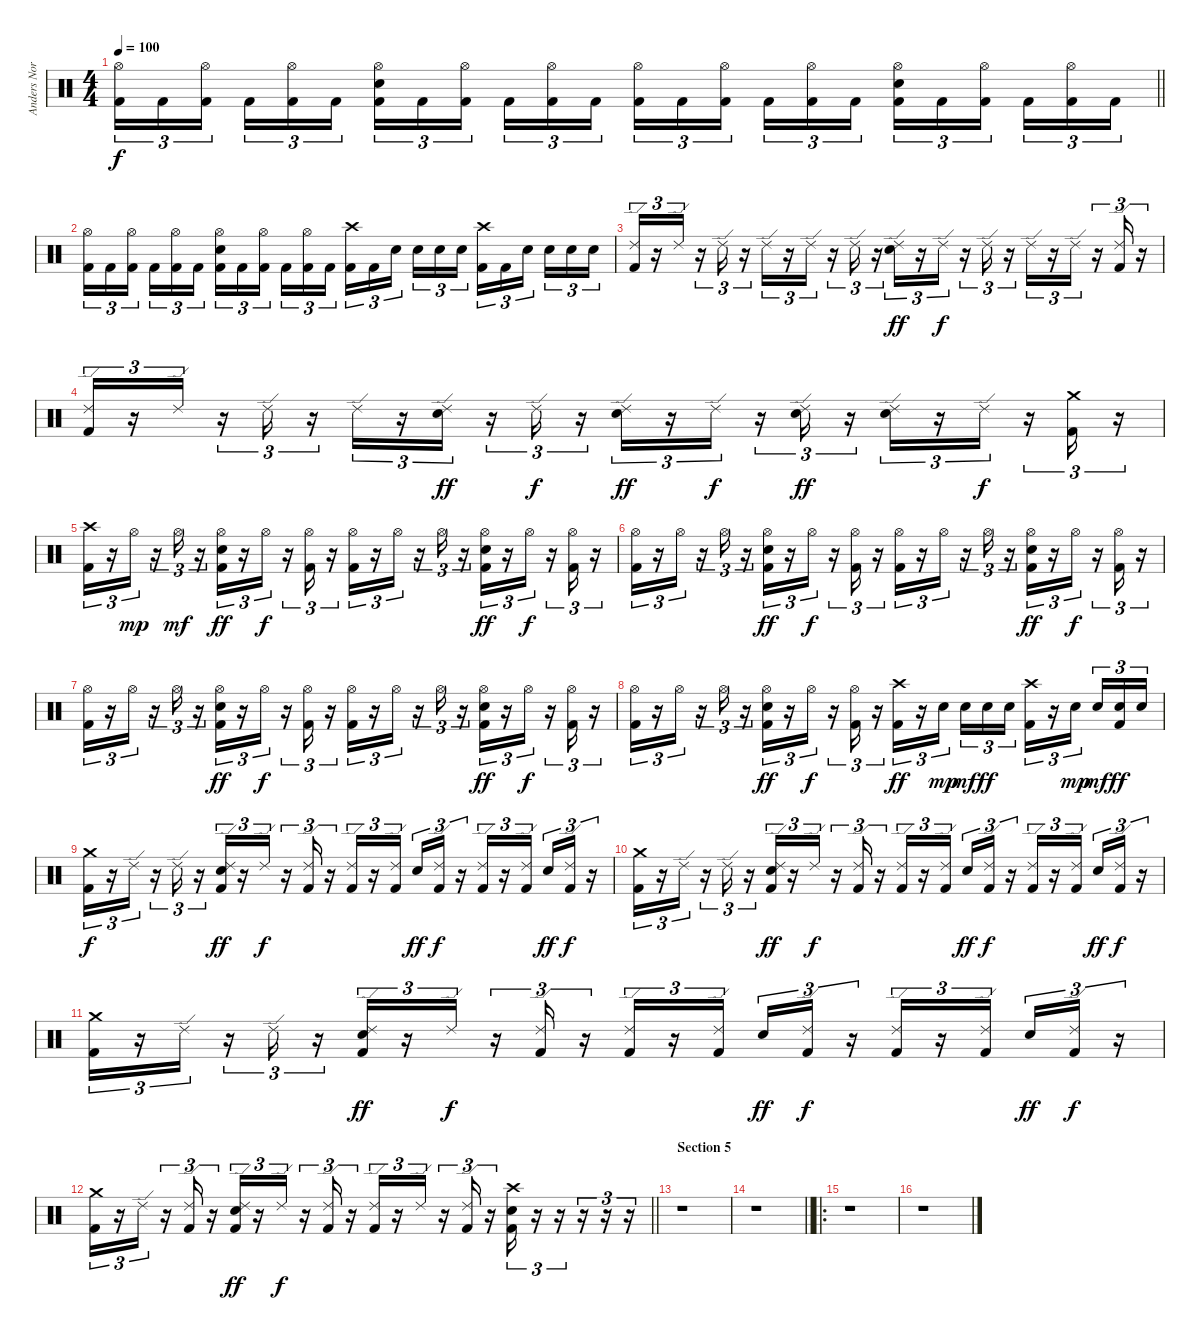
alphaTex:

\track ("Anders Nordin" "Anders Nor") {instrument percussion}
\staff {score}
\articulation defaults
\ts (4 4)
\tempo 100
\clef neutral
\barLineRight lightlight
\ks c
("Hi-Hat (open)" "Kick (hit) 2").16{tu (3 2) dy f} "Kick (hit) 2".16{tu (3 2)} ("Hi-Hat (open)" "Kick (hit) 2").16{tu (3 2) beam splitsecondary} "Kick (hit) 2".16{tu (3 2)} ("Hi-Hat (open)" "Kick (hit) 2").16{tu (3 2)} "Kick (hit) 2".16{tu (3 2)} ("Hi-Hat (open)" "Snare (hit) 2" "Kick (hit) 2").16{tu (3 2)} "Kick (hit) 2".16{tu (3 2)} ("Hi-Hat (open)" "Kick (hit) 2").16{tu (3 2) beam splitsecondary} "Kick (hit) 2".16{tu (3 2)} ("Hi-Hat (open)" "Kick (hit) 2").16{tu (3 2)} "Kick (hit) 2".16{tu (3 2)} ("Hi-Hat (open)" "Kick (hit) 2").16{tu (3 2)} "Kick (hit) 2".16{tu (3 2)} ("Hi-Hat (open)" "Kick (hit) 2").16{tu (3 2) beam splitsecondary} "Kick (hit) 2".16{tu (3 2)} ("Hi-Hat (open)" "Kick (hit) 2").16{tu (3 2)} "Kick (hit) 2".16{tu (3 2)} ("Hi-Hat (open)" "Snare (hit) 2" "Kick (hit) 2").16{tu (3 2)} "Kick (hit) 2".16{tu (3 2)} ("Hi-Hat (open)" "Kick (hit) 2").16{tu (3 2) beam splitsecondary} "Kick (hit) 2".16{tu (3 2)} ("Hi-Hat (open)" "Kick (hit) 2").16{tu (3 2)} "Kick (hit) 2".16{tu (3 2)} |
\section ("" "")
("Hi-Hat (open)" "Kick (hit) 2").16{tu (3 2)} "Kick (hit) 2".16{tu (3 2)} ("Hi-Hat (open)" "Kick (hit) 2").16{tu (3 2) beam splitsecondary} "Kick (hit) 2".16{tu (3 2)} ("Hi-Hat (open)" "Kick (hit) 2").16{tu (3 2)} "Kick (hit) 2".16{tu (3 2)} ("Hi-Hat (open)" "Snare (hit) 2" "Kick (hit) 2").16{tu (3 2)} "Kick (hit) 2".16{tu (3 2)} ("Hi-Hat (open)" "Kick (hit) 2").16{tu (3 2) beam splitsecondary} "Kick (hit) 2".16{tu (3 2)} ("Hi-Hat (open)" "Kick (hit) 2").16{tu (3 2)} "Kick (hit) 2".16{tu (3 2)} ("Crash high (hit)" "Kick (hit) 2").16{tu (3 2)} "Kick (hit) 2".16{tu (3 2)} "Snare (hit) 2".16{tu (3 2) beam splitsecondary} "Snare (hit) 2".16{tu (3 2)} "Snare (hit) 2".16{tu (3 2)} "Snare (hit) 2".16{tu (3 2)} ("Crash high (hit)" "Kick (hit) 2").16{tu (3 2)} "Kick (hit) 2".16{tu (3 2)} "Snare (hit) 2".16{tu (3 2) beam splitsecondary} "Snare (hit) 2".16{tu (3 2)} "Snare (hit) 2".16{tu (3 2)} "Snare (hit) 2".16{tu (3 2)} |
("Ride (edge) 2" "Kick (hit) 2").16{tu (3 2)} r.16{tu (3 2)} "Ride (edge) 2".16{tu (3 2)} r.16{tu (3 2)} "Ride (edge) 2".16{tu (3 2)} r.16{tu (3 2)} "Ride (edge) 2".16{tu (3 2)} r.16{tu (3 2)} "Ride (edge) 2".16{tu (3 2)} r.16{tu (3 2)} "Ride (edge) 2".16{tu (3 2)} r.16{tu (3 2)} ("Ride (edge) 2" "Snare (hit) 2").16{tu (3 2) dy ff} r.16{tu (3 2)} "Ride (edge) 2".16{tu (3 2) dy f} r.16{tu (3 2)} "Ride (edge) 2".16{tu (3 2)} r.16{tu (3 2)} "Ride (edge) 2".16{tu (3 2)} r.16{tu (3 2)} "Ride (edge) 2".16{tu (3 2)} r.16{tu (3 2)} ("Ride (edge) 2" "Kick (hit) 2").16{tu (3 2)} r.16{tu (3 2)} |
("Ride (edge) 2" "Kick (hit) 2").16{tu (3 2)} r.16{tu (3 2)} "Ride (edge) 2".16{tu (3 2)} r.16{tu (3 2)} "Ride (edge) 2".16{tu (3 2)} r.16{tu (3 2)} "Ride (edge) 2".16{tu (3 2)} r.16{tu (3 2)} ("Ride (edge) 2" "Snare (hit) 2").16{tu (3 2) dy ff} r.16{tu (3 2)} "Ride (edge) 2".16{tu (3 2) dy f} r.16{tu (3 2)} ("Ride (edge) 2" "Snare (hit) 2").16{tu (3 2) dy ff} r.16{tu (3 2)} "Ride (edge) 2".16{tu (3 2) dy f} r.16{tu (3 2)} ("Ride (edge) 2" "Snare (hit) 2").16{tu (3 2) dy ff} r.16{tu (3 2)} ("Ride (edge) 2" "Snare (hit) 2").16{tu (3 2)} r.16{tu (3 2)} "Ride (edge) 2".16{tu (3 2) dy f} r.16{tu (3 2)} ("Crash medium (hit)" "Kick (hit) 2").16{tu (3 2)} r.16{tu (3 2)} |
("Crash high (hit)" "Kick (hit) 2").16{tu (3 2)} r.16{tu (3 2)} "Hi-Hat (open)".16{tu (3 2) dy mp} r.16{tu (3 2)} "Hi-Hat (open)".16{tu (3 2) dy mf} r.16{tu (3 2)} ("Hi-Hat (open)" "Snare (hit) 2" "Kick (hit) 2").16{tu (3 2) dy ff} r.16{tu (3 2)} "Hi-Hat (open)".16{tu (3 2) dy f} r.16{tu (3 2)} ("Hi-Hat (open)" "Kick (hit) 2").16{tu (3 2)} r.16{tu (3 2)} ("Hi-Hat (open)" "Kick (hit) 2").16{tu (3 2)} r.16{tu (3 2)} "Hi-Hat (open)".16{tu (3 2)} r.16{tu (3 2)} "Hi-Hat (open)".16{tu (3 2)} r.16{tu (3 2)} ("Hi-Hat (open)" "Snare (hit) 2" "Kick (hit) 2").16{tu (3 2) dy ff} r.16{tu (3 2)} "Hi-Hat (open)".16{tu (3 2) dy f} r.16{tu (3 2)} ("Hi-Hat (open)" "Kick (hit) 2").16{tu (3 2)} r.16{tu (3 2)} |
("Hi-Hat (open)" "Kick (hit) 2").16{tu (3 2)} r.16{tu (3 2)} "Hi-Hat (open)".16{tu (3 2)} r.16{tu (3 2)} "Hi-Hat (open)".16{tu (3 2)} r.16{tu (3 2)} ("Hi-Hat (open)" "Snare (hit) 2" "Kick (hit) 2").16{tu (3 2) dy ff} r.16{tu (3 2)} "Hi-Hat (open)".16{tu (3 2) dy f} r.16{tu (3 2)} ("Hi-Hat (open)" "Kick (hit) 2").16{tu (3 2)} r.16{tu (3 2)} ("Hi-Hat (open)" "Kick (hit) 2").16{tu (3 2)} r.16{tu (3 2)} "Hi-Hat (open)".16{tu (3 2)} r.16{tu (3 2)} "Hi-Hat (open)".16{tu (3 2)} r.16{tu (3 2)} ("Hi-Hat (open)" "Snare (hit) 2" "Kick (hit) 2").16{tu (3 2) dy ff} r.16{tu (3 2)} "Hi-Hat (open)".16{tu (3 2) dy f} r.16{tu (3 2)} ("Hi-Hat (open)" "Kick (hit) 2").16{tu (3 2)} r.16{tu (3 2)} |
("Hi-Hat (open)" "Kick (hit) 2").16{tu (3 2)} r.16{tu (3 2)} "Hi-Hat (open)".16{tu (3 2)} r.16{tu (3 2)} "Hi-Hat (open)".16{tu (3 2)} r.16{tu (3 2)} ("Hi-Hat (open)" "Snare (hit) 2" "Kick (hit) 2").16{tu (3 2) dy ff} r.16{tu (3 2)} "Hi-Hat (open)".16{tu (3 2) dy f} r.16{tu (3 2)} ("Hi-Hat (open)" "Kick (hit) 2").16{tu (3 2)} r.16{tu (3 2)} ("Hi-Hat (open)" "Kick (hit) 2").16{tu (3 2)} r.16{tu (3 2)} "Hi-Hat (open)".16{tu (3 2)} r.16{tu (3 2)} "Hi-Hat (open)".16{tu (3 2)} r.16{tu (3 2)} ("Hi-Hat (open)" "Snare (hit) 2" "Kick (hit) 2").16{tu (3 2) dy ff} r.16{tu (3 2)} "Hi-Hat (open)".16{tu (3 2) dy f} r.16{tu (3 2)} ("Hi-Hat (open)" "Kick (hit) 2").16{tu (3 2)} r.16{tu (3 2)} |
("Hi-Hat (open)" "Kick (hit) 2").16{tu (3 2)} r.16{tu (3 2)} "Hi-Hat (open)".16{tu (3 2)} r.16{tu (3 2)} "Hi-Hat (open)".16{tu (3 2)} r.16{tu (3 2)} ("Hi-Hat (open)" "Snare (hit) 2" "Kick (hit) 2").16{tu (3 2) dy ff} r.16{tu (3 2)} "Hi-Hat (open)".16{tu (3 2) dy f} r.16{tu (3 2)} ("Hi-Hat (open)" "Kick (hit) 2").16{tu (3 2)} r.16{tu (3 2)} ("Crash high (hit)" "Kick (hit) 2").16{tu (3 2) dy ff} r.16{tu (3 2)} "Snare (hit) 2".16{tu (3 2) dy mp beam splitsecondary} "Snare (hit) 2".16{tu (3 2) dy mf} "Snare (hit) 2".16{tu (3 2) dy ff} "Snare (hit) 2".16{tu (3 2)} ("Crash high (hit)" "Kick (hit) 2").16{tu (3 2)} r.16{tu (3 2)} "Snare (hit) 2".16{tu (3 2) dy mp beam splitsecondary} "Snare (hit) 2".16{tu (3 2) dy mf} ("Snare (hit) 2" "Kick (hit) 2").16{tu (3 2) dy ff} "Snare (hit) 2".16{tu (3 2)} |
("Crash medium (hit)" "Kick (hit) 2").16{tu (3 2) dy f} r.16{tu (3 2)} "Ride (edge) 2".16{tu (3 2)} r.16{tu (3 2)} "Ride (edge) 2".16{tu (3 2)} r.16{tu (3 2)} ("Ride (edge) 2" "Snare (hit) 2" "Kick (hit) 2").16{tu (3 2) dy ff} r.16{tu (3 2)} "Ride (edge) 2".16{tu (3 2) dy f} r.16{tu (3 2)} ("Ride (edge) 2" "Kick (hit) 2").16{tu (3 2)} r.16{tu (3 2)} ("Ride (edge) 2" "Kick (hit) 2").16{tu (3 2)} r.16{tu (3 2)} ("Ride (edge) 2" "Kick (hit) 2").16{tu (3 2) beam splitsecondary} "Snare (hit) 2".16{tu (3 2) dy ff} ("Ride (edge) 2" "Kick (hit) 2").16{tu (3 2) dy f} r.16{tu (3 2)} ("Ride (edge) 2" "Kick (hit) 2").16{tu (3 2)} r.16{tu (3 2)} ("Ride (edge) 2" "Kick (hit) 2").16{tu (3 2) beam splitsecondary} "Snare (hit) 2".16{tu (3 2) dy ff} ("Ride (edge) 2" "Kick (hit) 2").16{tu (3 2) dy f} r.16{tu (3 2)} |
("Crash medium (hit)" "Kick (hit) 2").16{tu (3 2)} r.16{tu (3 2)} "Ride (edge) 2".16{tu (3 2)} r.16{tu (3 2)} "Ride (edge) 2".16{tu (3 2)} r.16{tu (3 2)} ("Ride (edge) 2" "Snare (hit) 2" "Kick (hit) 2").16{tu (3 2) dy ff} r.16{tu (3 2)} "Ride (edge) 2".16{tu (3 2) dy f} r.16{tu (3 2)} ("Ride (edge) 2" "Kick (hit) 2").16{tu (3 2)} r.16{tu (3 2)} ("Ride (edge) 2" "Kick (hit) 2").16{tu (3 2)} r.16{tu (3 2)} ("Ride (edge) 2" "Kick (hit) 2").16{tu (3 2) beam splitsecondary} "Snare (hit) 2".16{tu (3 2) dy ff} ("Ride (edge) 2" "Kick (hit) 2").16{tu (3 2) dy f} r.16{tu (3 2)} ("Ride (edge) 2" "Kick (hit) 2").16{tu (3 2)} r.16{tu (3 2)} ("Ride (edge) 2" "Kick (hit) 2").16{tu (3 2) beam splitsecondary} "Snare (hit) 2".16{tu (3 2) dy ff} ("Ride (edge) 2" "Kick (hit) 2").16{tu (3 2) dy f} r.16{tu (3 2)} |
("Crash medium (hit)" "Kick (hit) 2").16{tu (3 2)} r.16{tu (3 2)} "Ride (edge) 2".16{tu (3 2)} r.16{tu (3 2)} "Ride (edge) 2".16{tu (3 2)} r.16{tu (3 2)} ("Ride (edge) 2" "Snare (hit) 2" "Kick (hit) 2").16{tu (3 2) dy ff} r.16{tu (3 2)} "Ride (edge) 2".16{tu (3 2) dy f} r.16{tu (3 2)} ("Ride (edge) 2" "Kick (hit) 2").16{tu (3 2)} r.16{tu (3 2)} ("Ride (edge) 2" "Kick (hit) 2").16{tu (3 2)} r.16{tu (3 2)} ("Ride (edge) 2" "Kick (hit) 2").16{tu (3 2) beam splitsecondary} "Snare (hit) 2".16{tu (3 2) dy ff} ("Ride (edge) 2" "Kick (hit) 2").16{tu (3 2) dy f} r.16{tu (3 2)} ("Ride (edge) 2" "Kick (hit) 2").16{tu (3 2)} r.16{tu (3 2)} ("Ride (edge) 2" "Kick (hit) 2").16{tu (3 2) beam splitsecondary} "Snare (hit) 2".16{tu (3 2) dy ff} ("Ride (edge) 2" "Kick (hit) 2").16{tu (3 2) dy f} r.16{tu (3 2)} |
\barLineRight lightlight
("Crash medium (hit)" "Kick (hit) 2").16{tu (3 2)} r.16{tu (3 2)} "Ride (edge) 2".16{tu (3 2)} r.16{tu (3 2)} ("Ride (edge) 2" "Kick (hit) 2").16{tu (3 2)} r.16{tu (3 2)} ("Ride (edge) 2" "Snare (hit) 2" "Kick (hit) 2").16{tu (3 2) dy ff} r.16{tu (3 2)} "Ride (edge) 2".16{tu (3 2) dy f} r.16{tu (3 2)} ("Ride (edge) 2" "Kick (hit) 2").16{tu (3 2)} r.16{tu (3 2)} ("Ride (edge) 2" "Kick (hit) 2").16{tu (3 2)} r.16{tu (3 2)} "Ride (edge) 2".16{tu (3 2)} r.16{tu (3 2)} ("Ride (edge) 2" "Kick (hit) 2").16{tu (3 2)} r.16{tu (3 2)} ("Crash high (hit)" "Snare (hit) 2" "Kick (hit) 2").16{tu (3 2)} r.16{tu (3 2)} r.16{tu (3 2)} r.16{tu (3 2)} r.16{tu (3 2)} r.16{tu (3 2)} |
\section ("" "Section 5")
r.1 |
\barLineRight lightlight
r.1 |
\ro
\section ("" "")
r.1 |
r.1
